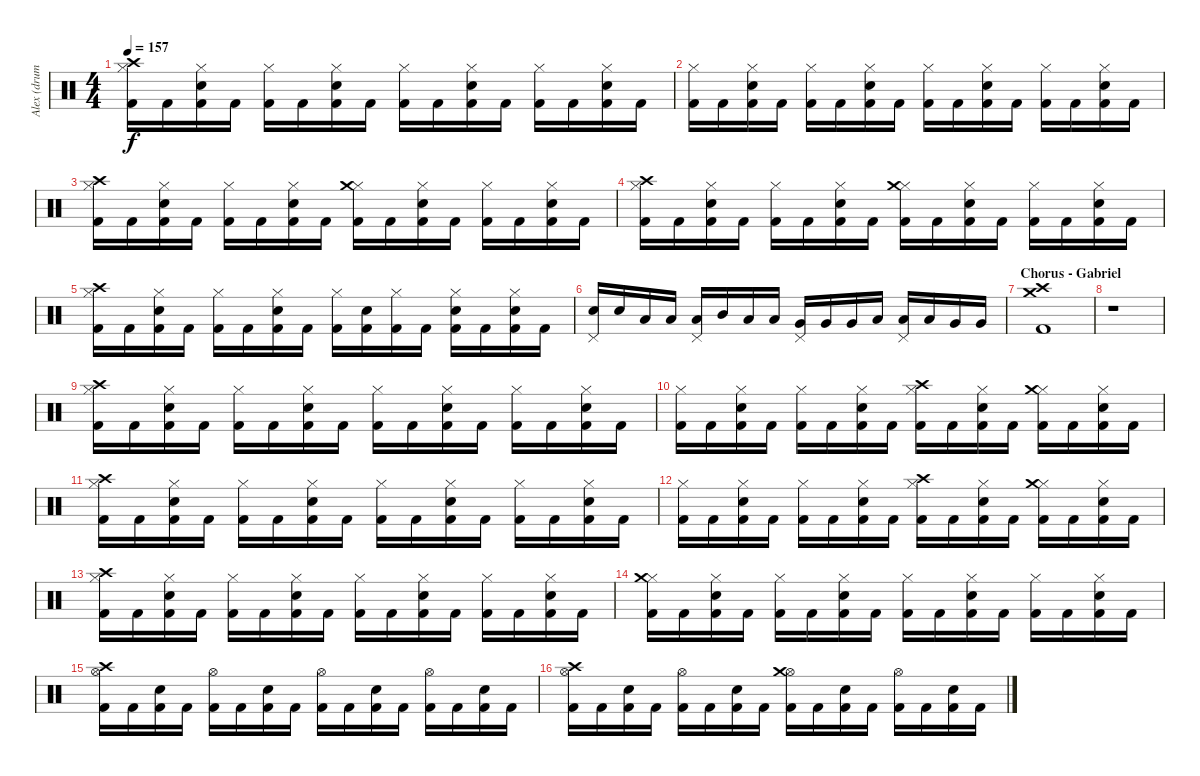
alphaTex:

\track ("Alex (drums)" "Alex (drum") {instrument percussion}
\staff {score}
\articulation defaults
\ts (4 4)
\tempo 157
\clef neutral
\ks c
("Hi-Hat (closed)" "Kick (hit) 2" "Crash high (hit)").16{dy f} "Kick (hit) 2".16 ("Hi-Hat (closed)" "Snare (hit) 2" "Kick (hit) 2").16 "Kick (hit) 2".16 ("Hi-Hat (closed)" "Kick (hit) 2").16 "Kick (hit) 2".16 ("Hi-Hat (closed)" "Snare (hit) 2" "Kick (hit) 2").16 "Kick (hit) 2".16 ("Hi-Hat (closed)" "Kick (hit) 2").16 "Kick (hit) 2".16 ("Hi-Hat (closed)" "Snare (hit) 2" "Kick (hit) 2").16 "Kick (hit) 2".16 ("Hi-Hat (closed)" "Kick (hit) 2").16 "Kick (hit) 2".16 ("Hi-Hat (closed)" "Snare (hit) 2" "Kick (hit) 2").16 "Kick (hit) 2".16 |
("Hi-Hat (closed)" "Kick (hit) 2").16 "Kick (hit) 2".16 ("Hi-Hat (closed)" "Snare (hit) 2" "Kick (hit) 2").16 "Kick (hit) 2".16 ("Hi-Hat (closed)" "Kick (hit) 2").16 "Kick (hit) 2".16 ("Hi-Hat (closed)" "Snare (hit) 2" "Kick (hit) 2").16 "Kick (hit) 2".16 ("Hi-Hat (closed)" "Kick (hit) 2").16 "Kick (hit) 2".16 ("Hi-Hat (closed)" "Snare (hit) 2" "Kick (hit) 2").16 "Kick (hit) 2".16 ("Hi-Hat (closed)" "Kick (hit) 2").16 "Kick (hit) 2".16 ("Hi-Hat (closed)" "Snare (hit) 2" "Kick (hit) 2").16 "Kick (hit) 2".16 |
("Hi-Hat (closed)" "Kick (hit) 2" "Crash high (hit)").16 "Kick (hit) 2".16 ("Hi-Hat (closed)" "Snare (hit) 2" "Kick (hit) 2").16 "Kick (hit) 2".16 ("Hi-Hat (closed)" "Kick (hit) 2").16 "Kick (hit) 2".16 ("Hi-Hat (closed)" "Snare (hit) 2" "Kick (hit) 2").16 "Kick (hit) 2".16 ("Hi-Hat (closed)" "Kick (hit) 2" "Crash medium (hit)").16 "Kick (hit) 2".16 ("Hi-Hat (closed)" "Snare (hit) 2" "Kick (hit) 2").16 "Kick (hit) 2".16 ("Hi-Hat (closed)" "Kick (hit) 2").16 "Kick (hit) 2".16 ("Hi-Hat (closed)" "Snare (hit) 2" "Kick (hit) 2").16 "Kick (hit) 2".16 |
("Hi-Hat (closed)" "Kick (hit) 2" "Crash high (hit)").16 "Kick (hit) 2".16 ("Hi-Hat (closed)" "Snare (hit) 2" "Kick (hit) 2").16 "Kick (hit) 2".16 ("Hi-Hat (closed)" "Kick (hit) 2").16 "Kick (hit) 2".16 ("Hi-Hat (closed)" "Snare (hit) 2" "Kick (hit) 2").16 "Kick (hit) 2".16 ("Hi-Hat (closed)" "Kick (hit) 2" "Crash medium (hit)").16 "Kick (hit) 2".16 ("Hi-Hat (closed)" "Snare (hit) 2" "Kick (hit) 2").16 "Kick (hit) 2".16 ("Hi-Hat (closed)" "Kick (hit) 2").16 "Kick (hit) 2".16 ("Hi-Hat (closed)" "Snare (hit) 2" "Kick (hit) 2").16 "Kick (hit) 2".16 |
("Hi-Hat (closed)" "Kick (hit) 2" "Crash high (hit)").16 "Kick (hit) 2".16 ("Hi-Hat (closed)" "Snare (hit) 2" "Kick (hit) 2").16 "Kick (hit) 2".16 ("Hi-Hat (closed)" "Kick (hit) 2").16 "Kick (hit) 2".16 ("Hi-Hat (closed)" "Snare (hit) 2" "Kick (hit) 2").16 "Kick (hit) 2".16 ("Hi-Hat (closed)" "Kick (hit) 2").16 ("Snare (hit) 2" "Kick (hit) 2").16 ("Hi-Hat (closed)" "Kick (hit) 2").16 "Kick (hit) 2".16 ("Hi-Hat (closed)" "Snare (hit) 2" "Kick (hit) 2").16 "Kick (hit) 2".16 ("Hi-Hat (closed)" "Snare (hit) 2" "Kick (hit) 2").16 "Kick (hit) 2".16 |
("Pedal Hi-Hat (hit)" "Snare (hit) 2").16 "Snare (hit) 2".16 "Low Tom (hit)".16 "Low Tom (hit)".16 ("Pedal Hi-Hat (hit)" "Low Tom (hit)").16 "Mid Tom (hit)".16 "Low Tom (hit)".16 "Low Tom (hit)".16 ("Pedal Hi-Hat (hit)" "Very Low Tom (hit)").16 "Very Low Tom (hit)".16 "Very Low Tom (hit)".16 "Low Tom (hit)".16 ("Pedal Hi-Hat (hit)" "Low Tom (hit)").16 "Low Tom (hit)".16 "Very Low Tom (hit)".16 "Very Low Tom (hit)".16 |
\section ("" "Chorus - Gabriel")
("Kick (hit) 2" "Crash medium (hit)" "Crash high (hit)").1 |
r.1 |
("Hi-Hat (closed)" "Kick (hit) 2" "Crash high (hit)").16 "Kick (hit) 2".16 ("Hi-Hat (closed)" "Snare (hit) 2" "Kick (hit) 2").16 "Kick (hit) 2".16 ("Hi-Hat (closed)" "Kick (hit) 2").16 "Kick (hit) 2".16 ("Hi-Hat (closed)" "Snare (hit) 2" "Kick (hit) 2").16 "Kick (hit) 2".16 ("Hi-Hat (closed)" "Kick (hit) 2").16 "Kick (hit) 2".16 ("Hi-Hat (closed)" "Snare (hit) 2" "Kick (hit) 2").16 "Kick (hit) 2".16 ("Hi-Hat (closed)" "Kick (hit) 2").16 "Kick (hit) 2".16 ("Hi-Hat (closed)" "Snare (hit) 2" "Kick (hit) 2").16 "Kick (hit) 2".16 |
("Hi-Hat (closed)" "Kick (hit) 2").16 "Kick (hit) 2".16 ("Hi-Hat (closed)" "Snare (hit) 2" "Kick (hit) 2").16 "Kick (hit) 2".16 ("Hi-Hat (closed)" "Kick (hit) 2").16 "Kick (hit) 2".16 ("Hi-Hat (closed)" "Snare (hit) 2" "Kick (hit) 2").16 "Kick (hit) 2".16 ("Hi-Hat (closed)" "Kick (hit) 2" "Crash high (hit)").16 "Kick (hit) 2".16 ("Hi-Hat (closed)" "Snare (hit) 2" "Kick (hit) 2").16 "Kick (hit) 2".16 ("Hi-Hat (closed)" "Kick (hit) 2" "Crash medium (hit)").16 "Kick (hit) 2".16 ("Hi-Hat (closed)" "Snare (hit) 2" "Kick (hit) 2").16 "Kick (hit) 2".16 |
("Hi-Hat (closed)" "Kick (hit) 2" "Crash high (hit)").16 "Kick (hit) 2".16 ("Hi-Hat (closed)" "Snare (hit) 2" "Kick (hit) 2").16 "Kick (hit) 2".16 ("Hi-Hat (closed)" "Kick (hit) 2").16 "Kick (hit) 2".16 ("Hi-Hat (closed)" "Snare (hit) 2" "Kick (hit) 2").16 "Kick (hit) 2".16 ("Hi-Hat (closed)" "Kick (hit) 2").16 "Kick (hit) 2".16 ("Hi-Hat (closed)" "Snare (hit) 2" "Kick (hit) 2").16 "Kick (hit) 2".16 ("Hi-Hat (closed)" "Kick (hit) 2").16 "Kick (hit) 2".16 ("Hi-Hat (closed)" "Snare (hit) 2" "Kick (hit) 2").16 "Kick (hit) 2".16 |
("Hi-Hat (closed)" "Kick (hit) 2").16 "Kick (hit) 2".16 ("Hi-Hat (closed)" "Snare (hit) 2" "Kick (hit) 2").16 "Kick (hit) 2".16 ("Hi-Hat (closed)" "Kick (hit) 2").16 "Kick (hit) 2".16 ("Hi-Hat (closed)" "Snare (hit) 2" "Kick (hit) 2").16 "Kick (hit) 2".16 ("Hi-Hat (closed)" "Kick (hit) 2" "Crash high (hit)").16 "Kick (hit) 2".16 ("Hi-Hat (closed)" "Snare (hit) 2" "Kick (hit) 2").16 "Kick (hit) 2".16 ("Hi-Hat (closed)" "Kick (hit) 2" "Crash medium (hit)").16 "Kick (hit) 2".16 ("Hi-Hat (closed)" "Snare (hit) 2" "Kick (hit) 2").16 "Kick (hit) 2".16 |
("Hi-Hat (closed)" "Kick (hit) 2" "Crash high (hit)").16 "Kick (hit) 2".16 ("Hi-Hat (closed)" "Snare (hit) 2" "Kick (hit) 2").16 "Kick (hit) 2".16 ("Hi-Hat (closed)" "Kick (hit) 2").16 "Kick (hit) 2".16 ("Hi-Hat (closed)" "Snare (hit) 2" "Kick (hit) 2").16 "Kick (hit) 2".16 ("Hi-Hat (closed)" "Kick (hit) 2").16 "Kick (hit) 2".16 ("Hi-Hat (closed)" "Snare (hit) 2" "Kick (hit) 2").16 "Kick (hit) 2".16 ("Hi-Hat (closed)" "Kick (hit) 2").16 "Kick (hit) 2".16 ("Hi-Hat (closed)" "Snare (hit) 2" "Kick (hit) 2").16 "Kick (hit) 2".16 |
("Hi-Hat (closed)" "Kick (hit) 2" "Crash medium (hit)").16 "Kick (hit) 2".16 ("Hi-Hat (closed)" "Snare (hit) 2" "Kick (hit) 2").16 "Kick (hit) 2".16 ("Hi-Hat (closed)" "Kick (hit) 2").16 "Kick (hit) 2".16 ("Hi-Hat (closed)" "Snare (hit) 2" "Kick (hit) 2").16 "Kick (hit) 2".16 ("Hi-Hat (closed)" "Kick (hit) 2").16 "Kick (hit) 2".16 ("Hi-Hat (closed)" "Snare (hit) 2" "Kick (hit) 2").16 "Kick (hit) 2".16 ("Hi-Hat (closed)" "Kick (hit) 2").16 "Kick (hit) 2".16 ("Hi-Hat (closed)" "Snare (hit) 2" "Kick (hit) 2").16 "Kick (hit) 2".16 |
("Hi-Hat (open)" "Kick (hit) 2" "Crash high (hit)").16 "Kick (hit) 2".16 ("Snare (hit) 2" "Kick (hit) 2").16 "Kick (hit) 2".16 ("Hi-Hat (open)" "Kick (hit) 2").16 "Kick (hit) 2".16 ("Snare (hit) 2" "Kick (hit) 2").16 "Kick (hit) 2".16 ("Hi-Hat (open)" "Kick (hit) 2").16 "Kick (hit) 2".16 ("Snare (hit) 2" "Kick (hit) 2").16 "Kick (hit) 2".16 ("Hi-Hat (open)" "Kick (hit) 2").16 "Kick (hit) 2".16 ("Snare (hit) 2" "Kick (hit) 2").16 "Kick (hit) 2".16 |
("Hi-Hat (open)" "Kick (hit) 2" "Crash high (hit)").16 "Kick (hit) 2".16 ("Snare (hit) 2" "Kick (hit) 2").16 "Kick (hit) 2".16 ("Hi-Hat (open)" "Kick (hit) 2").16 "Kick (hit) 2".16 ("Snare (hit) 2" "Kick (hit) 2").16 "Kick (hit) 2".16 ("Hi-Hat (open)" "Kick (hit) 2" "Crash medium (hit)").16 "Kick (hit) 2".16 ("Snare (hit) 2" "Kick (hit) 2").16 "Kick (hit) 2".16 ("Hi-Hat (open)" "Kick (hit) 2").16 "Kick (hit) 2".16 ("Snare (hit) 2" "Kick (hit) 2").16 "Kick (hit) 2".16
